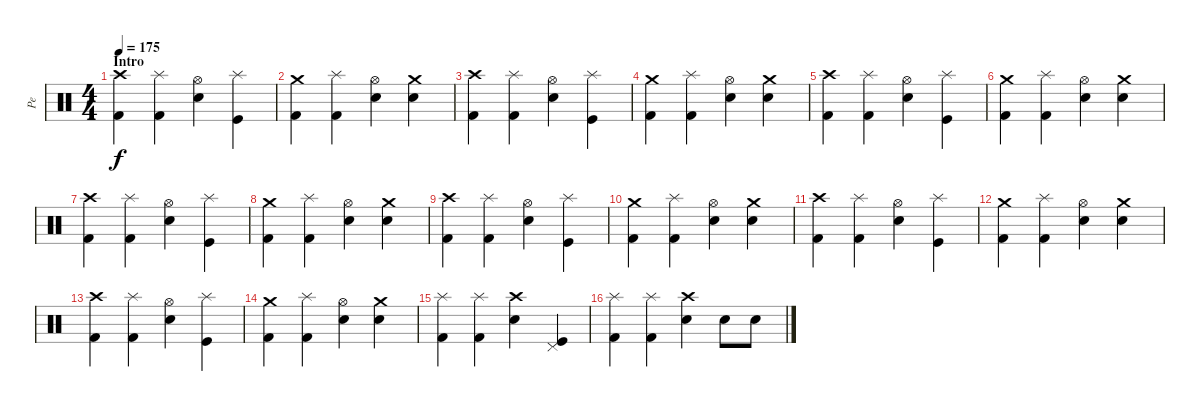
\track ("Pe" "Pe") {instrument percussion}
\staff {score}
\articulation defaults
\ts (4 4)
\section ("" "Intro")
\tempo 175
\clef neutral
\ks c
("Kick (hit) 2" "Crash high (hit)").4{dy f volume 15} ("Kick (hit) 2" "Splash (hit)").4 ("Electric Snare (hit)" "Hi-Hat (open)").4 ("Kick (hit)" "Splash (hit)").4 |
("Kick (hit) 2" "Crash medium (hit)").4 ("Kick (hit) 2" "Splash (hit)").4 ("Electric Snare (hit)" "Hi-Hat (open)").4 ("Electric Snare (hit)" "Crash medium (hit)").4 |
("Kick (hit) 2" "Crash high (hit)").4 ("Kick (hit) 2" "Splash (hit)").4 ("Electric Snare (hit)" "Hi-Hat (open)").4 ("Kick (hit)" "Splash (hit)").4 |
("Kick (hit) 2" "Crash medium (hit)").4 ("Kick (hit) 2" "Splash (hit)").4 ("Electric Snare (hit)" "Hi-Hat (open)").4 ("Electric Snare (hit)" "Crash medium (hit)").4 |
("Kick (hit) 2" "Crash high (hit)").4 ("Kick (hit) 2" "Splash (hit)").4 ("Electric Snare (hit)" "Hi-Hat (open)").4 ("Kick (hit)" "Splash (hit)").4 |
("Kick (hit) 2" "Crash medium (hit)").4 ("Kick (hit) 2" "Splash (hit)").4 ("Electric Snare (hit)" "Hi-Hat (open)").4 ("Electric Snare (hit)" "Crash medium (hit)").4 |
("Kick (hit) 2" "Crash high (hit)").4 ("Kick (hit) 2" "Splash (hit)").4 ("Electric Snare (hit)" "Hi-Hat (open)").4 ("Kick (hit)" "Splash (hit)").4 |
("Kick (hit) 2" "Crash medium (hit)").4 ("Kick (hit) 2" "Splash (hit)").4 ("Electric Snare (hit)" "Hi-Hat (open)").4 ("Electric Snare (hit)" "Crash medium (hit)").4 |
("Kick (hit) 2" "Crash high (hit)").4 ("Kick (hit) 2" "Splash (hit)").4 ("Electric Snare (hit)" "Hi-Hat (open)").4 ("Kick (hit)" "Splash (hit)").4 |
("Kick (hit) 2" "Crash medium (hit)").4 ("Kick (hit) 2" "Splash (hit)").4 ("Electric Snare (hit)" "Hi-Hat (open)").4 ("Electric Snare (hit)" "Crash medium (hit)").4 |
("Kick (hit) 2" "Crash high (hit)").4 ("Kick (hit) 2" "Splash (hit)").4 ("Electric Snare (hit)" "Hi-Hat (open)").4 ("Kick (hit)" "Splash (hit)").4 |
("Kick (hit) 2" "Crash medium (hit)").4 ("Kick (hit) 2" "Splash (hit)").4 ("Electric Snare (hit)" "Hi-Hat (open)").4 ("Electric Snare (hit)" "Crash medium (hit)").4 |
("Kick (hit) 2" "Crash high (hit)").4 ("Kick (hit) 2" "Splash (hit)").4 ("Electric Snare (hit)" "Hi-Hat (open)").4 ("Kick (hit)" "Splash (hit)").4 |
("Kick (hit) 2" "Crash medium (hit)").4 ("Kick (hit) 2" "Splash (hit)").4 ("Electric Snare (hit)" "Hi-Hat (open)").4 ("Electric Snare (hit)" "Crash medium (hit)").4 |
("Kick (hit) 2" "Splash (hit)").4 ("Kick (hit) 2" "Splash (hit)").4 ("Electric Snare (hit)" "Crash high (hit)").4 ("Kick (hit)" "Pedal Hi-Hat (hit)").4 |
("Kick (hit) 2" "Splash (hit)").4 ("Kick (hit) 2" "Splash (hit)").4 ("Electric Snare (hit)" "Crash high (hit)").4 "Electric Snare (hit)".8 "Electric Snare (hit)".8
